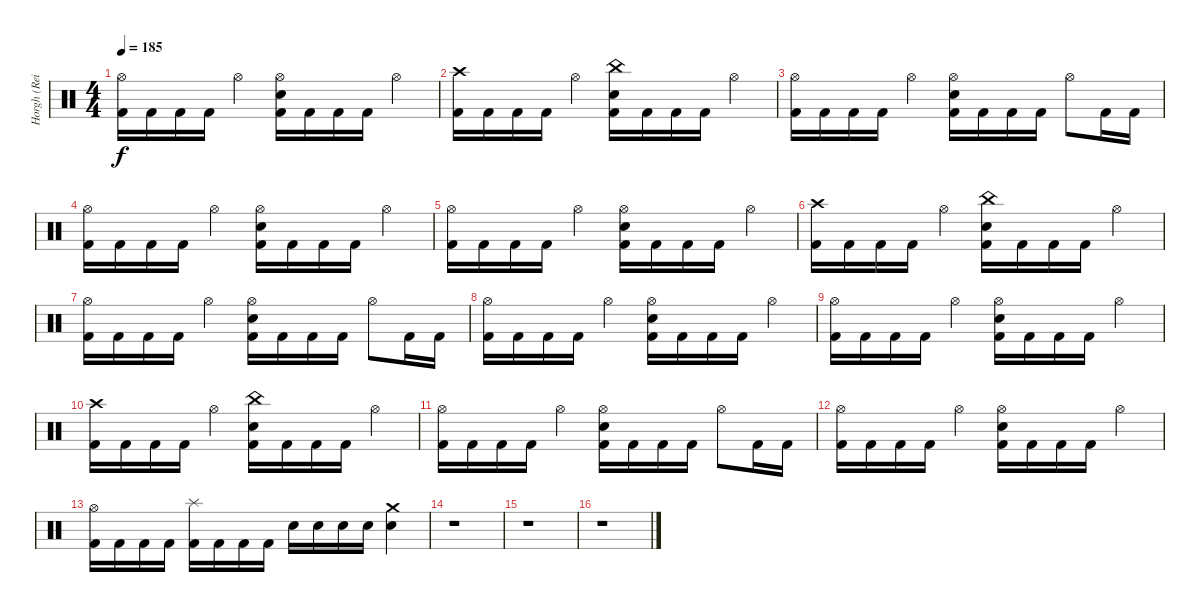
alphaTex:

\track ("Horgh (Reidar Horghagen)" "Horgh (Rei") {instrument percussion}
\staff {score}
\articulation defaults
\ts (4 4)
\tempo 185
\clef neutral
\ks c
("Hi-Hat (open)" "Kick (hit) 2").16{dy f} "Kick (hit) 2".16 "Kick (hit) 2".16 "Kick (hit) 2".16 "Hi-Hat (open)".4 ("Hi-Hat (open)" "Snare (hit) 2" "Kick (hit) 2").16 "Kick (hit) 2".16 "Kick (hit) 2".16 "Kick (hit) 2".16 "Hi-Hat (open)".4 |
("Crash high (hit)" "Kick (hit) 2").16 "Kick (hit) 2".16 "Kick (hit) 2".16 "Kick (hit) 2".16 "Hi-Hat (open)".4 ("China (hit)" "Snare (hit) 2" "Kick (hit) 2").16 "Kick (hit) 2".16 "Kick (hit) 2".16 "Kick (hit) 2".16 "Hi-Hat (open)".4 |
("Hi-Hat (open)" "Kick (hit) 2").16 "Kick (hit) 2".16 "Kick (hit) 2".16 "Kick (hit) 2".16 "Hi-Hat (open)".4 ("Hi-Hat (open)" "Snare (hit) 2" "Kick (hit) 2").16 "Kick (hit) 2".16 "Kick (hit) 2".16 "Kick (hit) 2".16 "Hi-Hat (open)".8 "Kick (hit) 2".16 "Kick (hit) 2".16 |
("Hi-Hat (open)" "Kick (hit) 2").16 "Kick (hit) 2".16 "Kick (hit) 2".16 "Kick (hit) 2".16 "Hi-Hat (open)".4 ("Hi-Hat (open)" "Snare (hit) 2" "Kick (hit) 2").16 "Kick (hit) 2".16 "Kick (hit) 2".16 "Kick (hit) 2".16 "Hi-Hat (open)".4 |
("Hi-Hat (open)" "Kick (hit) 2").16 "Kick (hit) 2".16 "Kick (hit) 2".16 "Kick (hit) 2".16 "Hi-Hat (open)".4 ("Hi-Hat (open)" "Snare (hit) 2" "Kick (hit) 2").16 "Kick (hit) 2".16 "Kick (hit) 2".16 "Kick (hit) 2".16 "Hi-Hat (open)".4 |
("Crash high (hit)" "Kick (hit) 2").16 "Kick (hit) 2".16 "Kick (hit) 2".16 "Kick (hit) 2".16 "Hi-Hat (open)".4 ("China (hit)" "Snare (hit) 2" "Kick (hit) 2").16 "Kick (hit) 2".16 "Kick (hit) 2".16 "Kick (hit) 2".16 "Hi-Hat (open)".4 |
("Hi-Hat (open)" "Kick (hit) 2").16 "Kick (hit) 2".16 "Kick (hit) 2".16 "Kick (hit) 2".16 "Hi-Hat (open)".4 ("Hi-Hat (open)" "Snare (hit) 2" "Kick (hit) 2").16 "Kick (hit) 2".16 "Kick (hit) 2".16 "Kick (hit) 2".16 "Hi-Hat (open)".8 "Kick (hit) 2".16 "Kick (hit) 2".16 |
("Hi-Hat (open)" "Kick (hit) 2").16 "Kick (hit) 2".16 "Kick (hit) 2".16 "Kick (hit) 2".16 "Hi-Hat (open)".4 ("Hi-Hat (open)" "Snare (hit) 2" "Kick (hit) 2").16 "Kick (hit) 2".16 "Kick (hit) 2".16 "Kick (hit) 2".16 "Hi-Hat (open)".4 |
("Hi-Hat (open)" "Kick (hit) 2").16 "Kick (hit) 2".16 "Kick (hit) 2".16 "Kick (hit) 2".16 "Hi-Hat (open)".4 ("Hi-Hat (open)" "Snare (hit) 2" "Kick (hit) 2").16 "Kick (hit) 2".16 "Kick (hit) 2".16 "Kick (hit) 2".16 "Hi-Hat (open)".4 |
("Crash high (hit)" "Kick (hit) 2").16 "Kick (hit) 2".16 "Kick (hit) 2".16 "Kick (hit) 2".16 "Hi-Hat (open)".4 ("China (hit)" "Snare (hit) 2" "Kick (hit) 2").16 "Kick (hit) 2".16 "Kick (hit) 2".16 "Kick (hit) 2".16 "Hi-Hat (open)".4 |
("Hi-Hat (open)" "Kick (hit) 2").16 "Kick (hit) 2".16 "Kick (hit) 2".16 "Kick (hit) 2".16 "Hi-Hat (open)".4 ("Hi-Hat (open)" "Snare (hit) 2" "Kick (hit) 2").16 "Kick (hit) 2".16 "Kick (hit) 2".16 "Kick (hit) 2".16 "Hi-Hat (open)".8 "Kick (hit) 2".16 "Kick (hit) 2".16 |
("Hi-Hat (open)" "Kick (hit) 2").16 "Kick (hit) 2".16 "Kick (hit) 2".16 "Kick (hit) 2".16 "Hi-Hat (open)".4 ("Hi-Hat (open)" "Snare (hit) 2" "Kick (hit) 2").16 "Kick (hit) 2".16 "Kick (hit) 2".16 "Kick (hit) 2".16 "Hi-Hat (open)".4 |
("Hi-Hat (open)" "Kick (hit) 2").16 "Kick (hit) 2".16 "Kick (hit) 2".16 "Kick (hit) 2".16 ("Splash (hit)" "Kick (hit) 2").16 "Kick (hit) 2".16 "Kick (hit) 2".16 "Kick (hit) 2".16 "Snare (hit) 2".16 "Snare (hit) 2".16 "Snare (hit) 2".16 "Snare (hit) 2".16 ("Crash medium (hit)" "Snare (hit) 2").4 |
r.1 |
r.1 |
r.1
